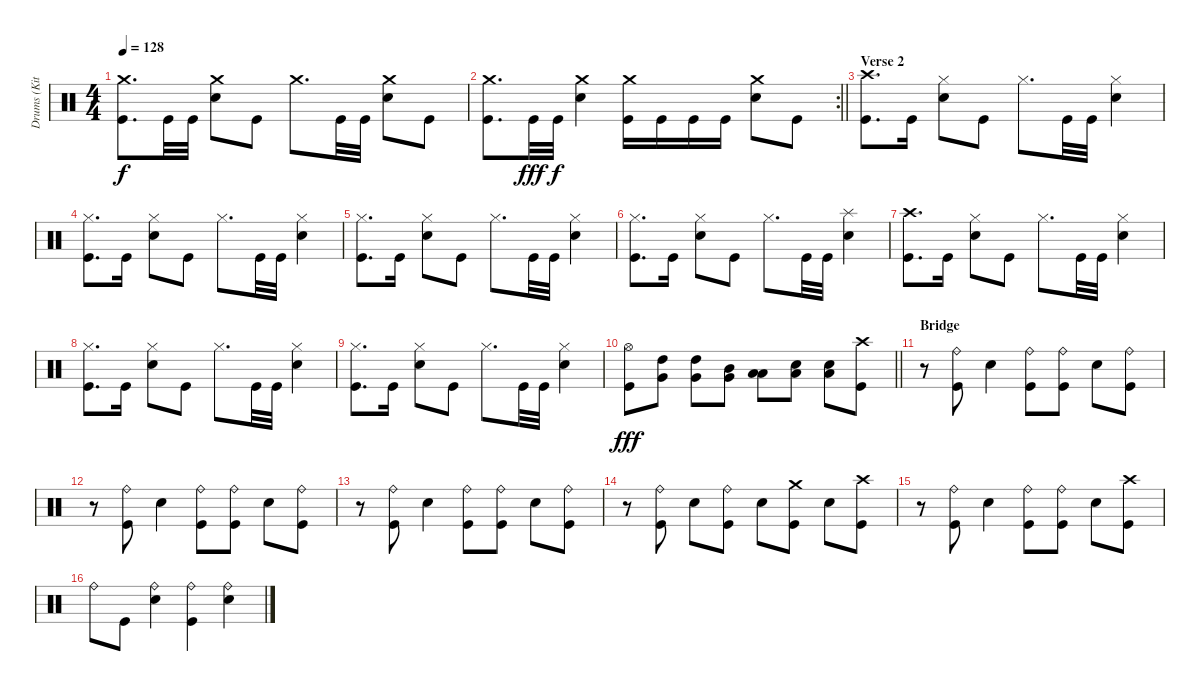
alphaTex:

\track ("Drums (Kita)" "Drums (Kit") {instrument percussion}
\staff {score}
\articulation defaults
\ts (4 4)
\tempo 128
\clef neutral
\ks c
("Crash medium (hit)" "Kick (hit)").8{d dy f} "Kick (hit)".32 "Kick (hit)".32 ("Crash medium (hit)" "Electric Snare (hit)").8 "Kick (hit)".8 "Crash medium (hit)".8{d} "Kick (hit)".32 "Kick (hit)".32 ("Crash medium (hit)" "Electric Snare (hit)").8 "Kick (hit)".8 |
\rc 2
\barLineRight lightlight
("Crash medium (hit)" "Kick (hit)").8{d} "Kick (hit)".32{dy fff} "Kick (hit)".32{dy f} ("Crash medium (hit)" "Electric Snare (hit)").4 ("Crash medium (hit)" "Kick (hit)").16 "Kick (hit)".16 "Kick (hit)".16 "Kick (hit)".16 ("Crash medium (hit)" "Electric Snare (hit)").8 "Kick (hit)".8 |
\section ("" "Verse 2")
("Crash high (hit)" "Kick (hit)").8{d} "Kick (hit)".16 ("Hi-Hat (closed)" "Electric Snare (hit)").8 "Kick (hit)".8 "Hi-Hat (closed)".8{d} "Kick (hit)".32 "Kick (hit)".32 ("Hi-Hat (closed)" "Electric Snare (hit)").4 |
("Hi-Hat (closed)" "Kick (hit)").8{d} "Kick (hit)".16 ("Hi-Hat (closed)" "Electric Snare (hit)").8 "Kick (hit)".8 "Hi-Hat (closed)".8{d} "Kick (hit)".32 "Kick (hit)".32 ("Hi-Hat (closed)" "Electric Snare (hit)").4 |
("Hi-Hat (closed)" "Kick (hit)").8{d} "Kick (hit)".16 ("Hi-Hat (closed)" "Electric Snare (hit)").8 "Kick (hit)".8 "Hi-Hat (closed)".8{d} "Kick (hit)".32 "Kick (hit)".32 ("Hi-Hat (closed)" "Electric Snare (hit)").4 |
("Hi-Hat (closed)" "Kick (hit)").8{d} "Kick (hit)".16 ("Hi-Hat (closed)" "Electric Snare (hit)").8 "Kick (hit)".8 "Hi-Hat (closed)".8{d} "Kick (hit)".32 "Kick (hit)".32 ("Splash (hit)" "Electric Snare (hit)").4 |
("Crash high (hit)" "Kick (hit)").8{d} "Kick (hit)".16 ("Hi-Hat (closed)" "Electric Snare (hit)").8 "Kick (hit)".8 "Hi-Hat (closed)".8{d} "Kick (hit)".32 "Kick (hit)".32 ("Hi-Hat (closed)" "Electric Snare (hit)").4 |
("Hi-Hat (closed)" "Kick (hit)").8{d} "Kick (hit)".16 ("Hi-Hat (closed)" "Electric Snare (hit)").8 "Kick (hit)".8 "Hi-Hat (closed)".8{d} "Kick (hit)".32 "Kick (hit)".32 ("Hi-Hat (closed)" "Electric Snare (hit)").4 |
("Hi-Hat (closed)" "Kick (hit)").8{d} "Kick (hit)".16 ("Hi-Hat (closed)" "Electric Snare (hit)").8 "Kick (hit)".8 "Hi-Hat (closed)".8{d} "Kick (hit)".32 "Kick (hit)".32 ("Hi-Hat (closed)" "Electric Snare (hit)").4 |
\barLineRight lightlight
("Hi-Hat (open)" "Kick (hit)").8{dy fff} ("High Tom (hit)" "Very Low Tom (hit)").8 ("High Tom (hit)" "Very Low Tom (hit)").8 ("Mid Tom (hit)" "Very Low Tom (hit)").8 ("Low Tom (hit)" "Low Floor Tom (hit)").8 ("Electric Snare (hit)" "Low Floor Tom (hit)").8 ("Electric Snare (hit)" "Low Floor Tom (hit)").8 ("Crash high (hit)" "Kick (hit)").8 |
\section ("" "Bridge")
r.8 ("Ride (bell)" "Kick (hit)").8 "Electric Snare (hit)".4 ("Ride (bell)" "Kick (hit)").8 ("Ride (bell)" "Kick (hit)").8 "Electric Snare (hit)".8 ("Ride (bell)" "Kick (hit)").8 |
r.8 ("Ride (bell)" "Kick (hit)").8 "Electric Snare (hit)".4 ("Ride (bell)" "Kick (hit)").8 ("Ride (bell)" "Kick (hit)").8 "Electric Snare (hit)".8 ("Ride (bell)" "Kick (hit)").8 |
r.8 ("Ride (bell)" "Kick (hit)").8 "Electric Snare (hit)".4 ("Ride (bell)" "Kick (hit)").8 ("Ride (bell)" "Kick (hit)").8 "Electric Snare (hit)".8 ("Ride (bell)" "Kick (hit)").8 |
r.8 ("Ride (bell)" "Kick (hit)").8 "Electric Snare (hit)".8 ("Ride (bell)" "Kick (hit)").8 "Electric Snare (hit)".8 ("Crash medium (hit)" "Kick (hit)").8 "Electric Snare (hit)".8 ("Crash high (hit)" "Kick (hit)").8 |
r.8 ("Ride (bell)" "Kick (hit)").8 "Electric Snare (hit)".4 ("Ride (bell)" "Kick (hit)").8 ("Ride (bell)" "Kick (hit)").8 "Electric Snare (hit)".8 ("Crash high (hit)" "Kick (hit)").8 |
"Ride (bell)".8 "Kick (hit)".8 ("Ride (bell)" "Electric Snare (hit)").4 ("Ride (bell)" "Kick (hit)").4 ("Ride (bell)" "Electric Snare (hit)").4
